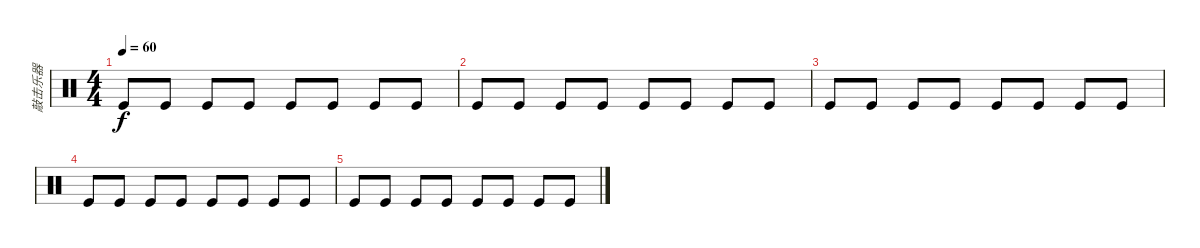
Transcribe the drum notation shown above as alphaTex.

\track ("敲击乐器" "敲击乐器") {instrument percussion}
\staff {score}
\articulation defaults
\ts (4 4)
\tempo 60
\clef neutral
\ks c "Kick (hit)".8{dy f} "Kick (hit)".8 "Kick (hit)".8 "Kick (hit)".8 "Kick (hit)".8 "Kick (hit)".8 "Kick (hit)".8 "Kick (hit)".8
|
"Kick (hit)".8 "Kick (hit)".8 "Kick (hit)".8 "Kick (hit)".8 "Kick (hit)".8 "Kick (hit)".8 "Kick (hit)".8 "Kick (hit)".8 |
"Kick (hit)".8 "Kick (hit)".8 "Kick (hit)".8 "Kick (hit)".8 "Kick (hit)".8 "Kick (hit)".8 "Kick (hit)".8 "Kick (hit)".8 |
"Kick (hit)".8 "Kick (hit)".8 "Kick (hit)".8 "Kick (hit)".8 "Kick (hit)".8 "Kick (hit)".8 "Kick (hit)".8 "Kick (hit)".8 |
"Kick (hit)".8 "Kick (hit)".8 "Kick (hit)".8 "Kick (hit)".8 "Kick (hit)".8 "Kick (hit)".8 "Kick (hit)".8 "Kick (hit)".8
